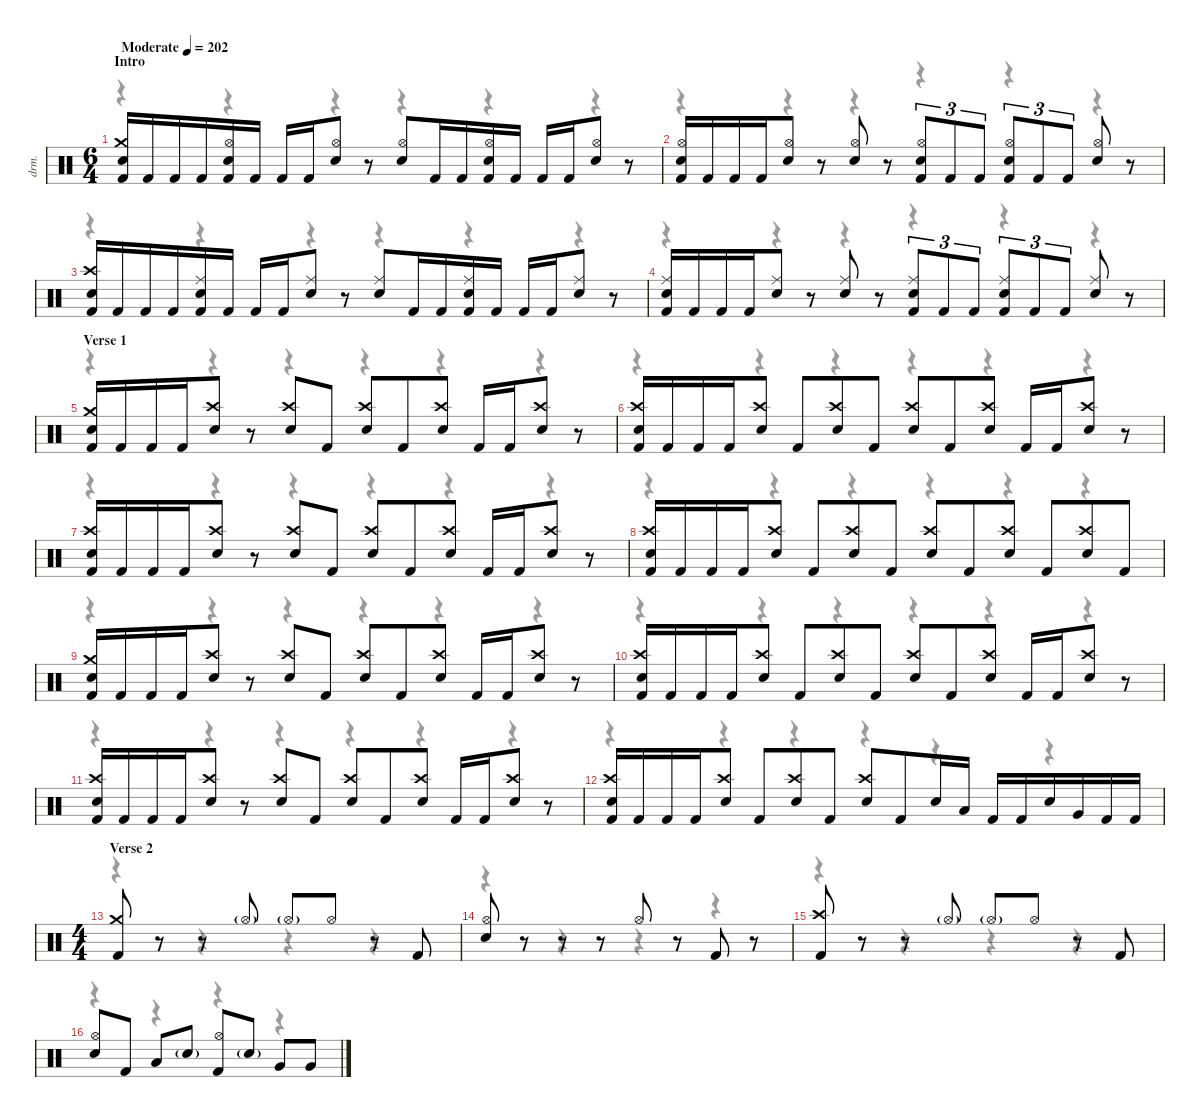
\defaultSystemsLayout 4
\hideDynamics
\bracketExtendMode nobrackets
\track ("Alex Ballew" "drm.") {instrument percussion}
\staff {score}
\articulation defaults
\voice
\ts (6 4)
\beaming (8 3 3 3 3)
\section ("" "Intro ")
\tempo (202 "Moderate")
\clef neutral
\ks c
("Crash medium (hit)" "Snare (hit) 2" "Kick (hit) 2").16{dy f beam Up} "Kick (hit) 2".16{beam Up} "Kick (hit) 2".16{beam Up} "Kick (hit) 2".16{beam Up} ("Hi-Hat (open)" "Snare (hit) 2" "Kick (hit) 2").16{beam Up} "Kick (hit) 2".16{beam Up} "Kick (hit) 2".16{beam Up} "Kick (hit) 2".16{beam Up} ("Hi-Hat (open)" "Snare (hit) 2").8{beam Up} r.8{beam Up} ("Hi-Hat (open)" "Snare (hit) 2").8{beam Up} "Kick (hit) 2".16{beam Up} "Kick (hit) 2".16{beam Up} ("Hi-Hat (open)" "Snare (hit) 2" "Kick (hit) 2").16{beam Up} "Kick (hit) 2".16{beam Up} "Kick (hit) 2".16{beam Up} "Kick (hit) 2".16{beam Up} ("Hi-Hat (open)" "Snare (hit) 2").8{beam Up} r.8{beam Up} |
("Hi-Hat (open)" "Snare (hit) 2" "Kick (hit) 2").16{beam Up} "Kick (hit) 2".16{beam Up} "Kick (hit) 2".16{beam Up} "Kick (hit) 2".16{beam Up} ("Hi-Hat (open)" "Snare (hit) 2").8{beam Up} r.8{beam Up} ("Hi-Hat (open)" "Snare (hit) 2").8{beam Up} r.8{beam Up} ("Hi-Hat (open)" "Snare (hit) 2" "Kick (hit) 2").8{tu (3 2) beam Up} "Kick (hit) 2".8{tu (3 2) beam Up} "Kick (hit) 2".8{tu (3 2) beam Up} ("Hi-Hat (open)" "Snare (hit) 2" "Kick (hit) 2").8{tu (3 2) beam Up} "Kick (hit) 2".8{tu (3 2) beam Up} "Kick (hit) 2".8{tu (3 2) beam Up} ("Hi-Hat (open)" "Snare (hit) 2").8{beam Up} r.8{beam Up} |
("Crash high (hit)" "Snare (hit) 2" "Kick (hit) 2").16{beam Up} "Kick (hit) 2".16{beam Up} "Kick (hit) 2".16{beam Up} "Kick (hit) 2".16{beam Up} ("Ride (middle)" "Snare (hit) 2" "Kick (hit) 2").16{beam Up} "Kick (hit) 2".16{beam Up} "Kick (hit) 2".16{beam Up} "Kick (hit) 2".16{beam Up} ("Ride (middle)" "Snare (hit) 2").8{beam Up} r.8{beam Up} ("Ride (middle)" "Snare (hit) 2").8{beam Up} "Kick (hit) 2".16{beam Up} "Kick (hit) 2".16{beam Up} ("Ride (middle)" "Snare (hit) 2" "Kick (hit) 2").16{beam Up} "Kick (hit) 2".16{beam Up} "Kick (hit) 2".16{beam Up} "Kick (hit) 2".16{beam Up} ("Ride (middle)" "Snare (hit) 2").8{beam Up} r.8{beam Up} |
("Ride (middle)" "Snare (hit) 2" "Kick (hit) 2").16{beam Up} "Kick (hit) 2".16{beam Up} "Kick (hit) 2".16{beam Up} "Kick (hit) 2".16{beam Up} ("Ride (middle)" "Snare (hit) 2").8{beam Up} r.8{beam Up} ("Ride (middle)" "Snare (hit) 2").8{beam Up} r.8{beam Up} ("Ride (middle)" "Snare (hit) 2" "Kick (hit) 2").8{tu (3 2) beam Up} "Kick (hit) 2".8{tu (3 2) beam Up} "Kick (hit) 2".8{tu (3 2) beam Up} ("Ride (middle)" "Snare (hit) 2" "Kick (hit) 2").8{tu (3 2) beam Up} "Kick (hit) 2".8{tu (3 2) beam Up} "Kick (hit) 2".8{tu (3 2) beam Up} ("Ride (middle)" "Snare (hit) 2").8{beam Up} r.8{beam Up} |
\section ("" "Verse 1")
("Crash medium (hit)" "Snare (hit) 2" "Kick (hit) 2").16{beam Up} "Kick (hit) 2".16{beam Up} "Kick (hit) 2".16{beam Up} "Kick (hit) 2".16{beam Up} ("Crash high (hit)" "Snare (hit) 2").8{beam Up} r.8{beam Up} ("Crash high (hit)" "Snare (hit) 2").8{beam Up} "Kick (hit) 2".8{beam Up} ("Crash high (hit)" "Snare (hit) 2").8{beam Up} "Kick (hit) 2".8{beam Up} ("Crash high (hit)" "Snare (hit) 2").8{beam Up} "Kick (hit) 2".16{beam Up} "Kick (hit) 2".16{beam Up} ("Crash high (hit)" "Snare (hit) 2").8{beam Up} r.8{beam Up} |
("Crash high (hit)" "Snare (hit) 2" "Kick (hit) 2").16{beam Up} "Kick (hit) 2".16{beam Up} "Kick (hit) 2".16{beam Up} "Kick (hit) 2".16{beam Up} ("Crash high (hit)" "Snare (hit) 2").8{beam Up} "Kick (hit) 2".8{beam Up} ("Crash high (hit)" "Snare (hit) 2").8{beam Up} "Kick (hit) 2".8{beam Up} ("Crash high (hit)" "Snare (hit) 2").8{beam Up} "Kick (hit) 2".8{beam Up} ("Crash high (hit)" "Snare (hit) 2").8{beam Up} "Kick (hit) 2".16{beam Up} "Kick (hit) 2".16{beam Up} ("Crash high (hit)" "Snare (hit) 2").8{beam Up} r.8{beam Up} |
("Crash high (hit)" "Snare (hit) 2" "Kick (hit) 2").16{beam Up} "Kick (hit) 2".16{beam Up} "Kick (hit) 2".16{beam Up} "Kick (hit) 2".16{beam Up} ("Crash high (hit)" "Snare (hit) 2").8{beam Up} r.8{beam Up} ("Crash high (hit)" "Snare (hit) 2").8{beam Up} "Kick (hit) 2".8{beam Up} ("Crash high (hit)" "Snare (hit) 2").8{beam Up} "Kick (hit) 2".8{beam Up} ("Crash high (hit)" "Snare (hit) 2").8{beam Up} "Kick (hit) 2".16{beam Up} "Kick (hit) 2".16{beam Up} ("Crash high (hit)" "Snare (hit) 2").8{beam Up} r.8{beam Up} |
("Crash high (hit)" "Snare (hit) 2" "Kick (hit) 2").16{beam Up} "Kick (hit) 2".16{beam Up} "Kick (hit) 2".16{beam Up} "Kick (hit) 2".16{beam Up} ("Crash high (hit)" "Snare (hit) 2").8{beam Up} "Kick (hit) 2".8{beam Up} ("Crash high (hit)" "Snare (hit) 2").8{beam Up} "Kick (hit) 2".8{beam Up} ("Crash high (hit)" "Snare (hit) 2").8{beam Up} "Kick (hit) 2".8{beam Up} ("Crash high (hit)" "Snare (hit) 2").8{beam Up} "Kick (hit) 2".8{beam Up} ("Crash high (hit)" "Snare (hit) 2").8{beam Up} "Kick (hit) 2".8{beam Up} |
("Crash medium (hit)" "Snare (hit) 2" "Kick (hit) 2").16{beam Up} "Kick (hit) 2".16{beam Up} "Kick (hit) 2".16{beam Up} "Kick (hit) 2".16{beam Up} ("Crash high (hit)" "Snare (hit) 2").8{beam Up} r.8{beam Up} ("Crash high (hit)" "Snare (hit) 2").8{beam Up} "Kick (hit) 2".8{beam Up} ("Crash high (hit)" "Snare (hit) 2").8{beam Up} "Kick (hit) 2".8{beam Up} ("Crash high (hit)" "Snare (hit) 2").8{beam Up} "Kick (hit) 2".16{beam Up} "Kick (hit) 2".16{beam Up} ("Crash high (hit)" "Snare (hit) 2").8{beam Up} r.8{beam Up} |
("Crash high (hit)" "Snare (hit) 2" "Kick (hit) 2").16{beam Up} "Kick (hit) 2".16{beam Up} "Kick (hit) 2".16{beam Up} "Kick (hit) 2".16{beam Up} ("Crash high (hit)" "Snare (hit) 2").8{beam Up} "Kick (hit) 2".8{beam Up} ("Crash high (hit)" "Snare (hit) 2").8{beam Up} "Kick (hit) 2".8{beam Up} ("Crash high (hit)" "Snare (hit) 2").8{beam Up} "Kick (hit) 2".8{beam Up} ("Crash high (hit)" "Snare (hit) 2").8{beam Up} "Kick (hit) 2".16{beam Up} "Kick (hit) 2".16{beam Up} ("Crash high (hit)" "Snare (hit) 2").8{beam Up} r.8{beam Up} |
("Crash high (hit)" "Snare (hit) 2" "Kick (hit) 2").16{beam Up} "Kick (hit) 2".16{beam Up} "Kick (hit) 2".16{beam Up} "Kick (hit) 2".16{beam Up} ("Crash high (hit)" "Snare (hit) 2").8{beam Up} r.8{beam Up} ("Crash high (hit)" "Snare (hit) 2").8{beam Up} "Kick (hit) 2".8{beam Up} ("Crash high (hit)" "Snare (hit) 2").8{beam Up} "Kick (hit) 2".8{beam Up} ("Crash high (hit)" "Snare (hit) 2").8{beam Up} "Kick (hit) 2".16{beam Up} "Kick (hit) 2".16{beam Up} ("Crash high (hit)" "Snare (hit) 2").8{beam Up} r.8{beam Up} |
("Crash high (hit)" "Snare (hit) 2" "Kick (hit) 2").16{beam Up} "Kick (hit) 2".16{beam Up} "Kick (hit) 2".16{beam Up} "Kick (hit) 2".16{beam Up} ("Crash high (hit)" "Snare (hit) 2").8{beam Up} "Kick (hit) 2".8{beam Up} ("Crash high (hit)" "Snare (hit) 2").8{beam Up} "Kick (hit) 2".8{beam Up} ("Crash high (hit)" "Snare (hit) 2").8{beam Up} "Kick (hit) 2".8{beam Up} "Snare (hit) 2".16{beam Up} "Low Tom (hit)".16{beam Up} "Kick (hit) 2".16{beam Up} "Kick (hit) 2".16{beam Up} "Snare (hit) 2".16{beam Up} "Very Low Tom (hit)".16{beam Up} "Kick (hit) 2".16{beam Up} "Kick (hit) 2".16{beam Up} |
\ts (4 4)
\beaming (8 2 2 2 2)
\section ("" "Verse 2")
("Crash medium (hit)" "Kick (hit) 2").8{beam Up} r.8{beam Up} r.8{beam Up} "Hi-Hat (open)"{g}.8{dy mf beam Up} "Hi-Hat (open)"{g}.8{dy f beam Up} "Hi-Hat (open)".8{beam Up} r.8{beam Up} "Kick (hit) 2".8{beam Up} |
("Hi-Hat (open)" "Snare (hit) 2").8{beam Up} r.8{beam Up} r.8{beam Up} r.8{beam Up} "Hi-Hat (open)".8{beam Up} r.8{beam Up} "Kick (hit) 2".8{beam Up} r.8{beam Up} |
("Crash high (hit)" "Kick (hit) 2").8{beam Up} r.8{beam Up} r.8{beam Up} "Hi-Hat (open)"{g}.8{dy mf beam Up} "Hi-Hat (open)"{g}.8{dy f beam Up} "Hi-Hat (open)".8{beam Up} r.8{beam Up} "Kick (hit) 2".8{beam Up} |
("Hi-Hat (open)" "Snare (hit) 2").8{beam Up} "Kick (hit) 2".8{beam Up} "Low Tom (hit)".8{beam Up} "Snare (hit) 2"{g}.8{beam Up} ("Hi-Hat (open)" "Kick (hit) 2").8{beam Up} "Snare (hit) 2"{g}.8{beam Up} "Very Low Tom (hit)".8{beam Up} "Very Low Tom (hit)".8{beam Up}
\voice
\clef neutral
\ottava regular
\simile none
\ks c
r.4{dy mf beam Down} r.4{beam Down} r.4{beam Down} r.4{beam Down} r.4{beam Down} r.4{beam Down} |
r.4{beam Down} r.4{beam Down} r.4{beam Down} r.4{beam Down} r.4{beam Down} r.4{beam Down} |
r.4{beam Down} r.4{beam Down} r.4{beam Down} r.4{beam Down} r.4{beam Down} r.4{beam Down} |
r.4{beam Down} r.4{beam Down} r.4{beam Down} r.4{beam Down} r.4{beam Down} r.4{beam Down} |
r.4{beam Down} r.4{beam Down} r.4{beam Down} r.4{beam Down} r.4{beam Down} r.4{beam Down} |
r.4{beam Down} r.4{beam Down} r.4{beam Down} r.4{beam Down} r.4{beam Down} r.4{beam Down} |
r.4{beam Down} r.4{beam Down} r.4{beam Down} r.4{beam Down} r.4{beam Down} r.4{beam Down} |
r.4{beam Down} r.4{beam Down} r.4{beam Down} r.4{beam Down} r.4{beam Down} r.4{beam Down} |
r.4{beam Down} r.4{beam Down} r.4{beam Down} r.4{beam Down} r.4{beam Down} r.4{beam Down} |
r.4{beam Down} r.4{beam Down} r.4{beam Down} r.4{beam Down} r.4{beam Down} r.4{beam Down} |
r.4{beam Down} r.4{beam Down} r.4{beam Down} r.4{beam Down} r.4{beam Down} r.4{beam Down} |
r.4{beam Down} r.4{beam Down} r.4{beam Down} r.4{beam Down} r.4{beam Down} r.4{beam Down} |
r.4{beam Down} r.4{beam Down} r.4{beam Down} r.4{beam Down} |
r.4{beam Down} r.4{beam Down} r.4{beam Down} r.4{beam Down} |
r.4{beam Down} r.4{beam Down} r.4{beam Down} r.4{beam Down} |
r.4{beam Down} r.4{beam Down} r.4{beam Down} r.4{beam Down}
